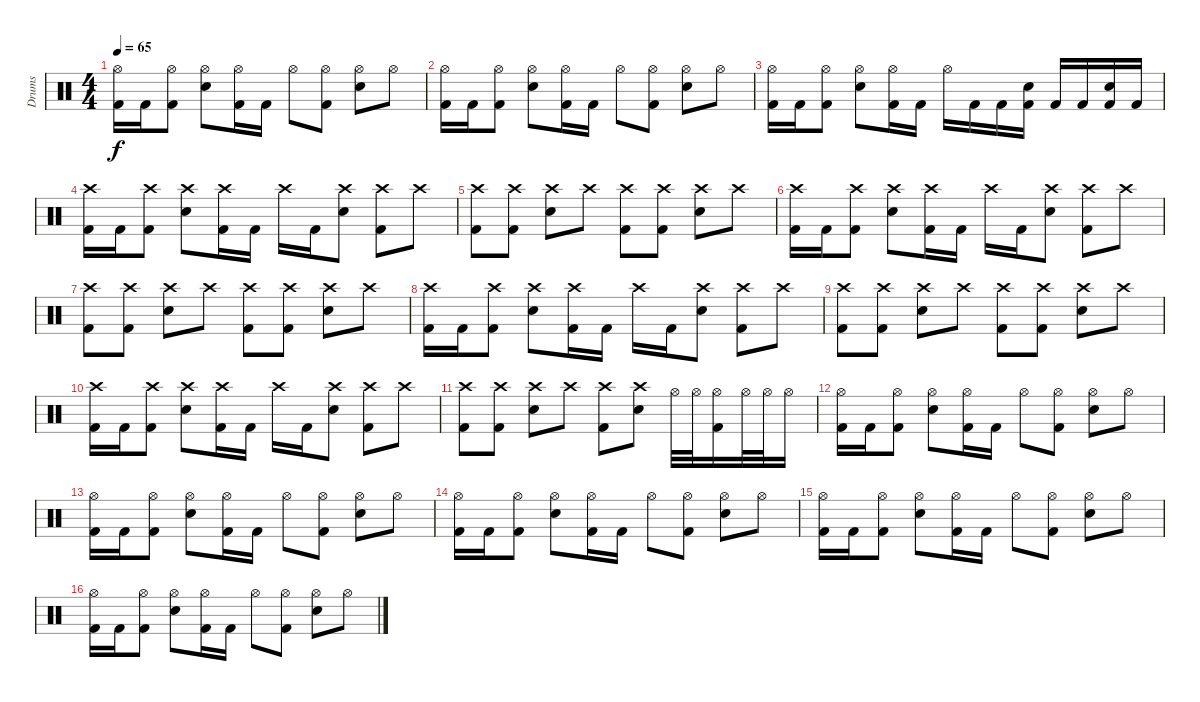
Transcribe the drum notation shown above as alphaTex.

\track ("Drums" "Drums") {instrument percussion}
\staff {score}
\articulation defaults
\ts (4 4)
\tempo 65
\clef neutral
\ks c
("Hi-Hat (open)" "Kick (hit) 2").16{dy f} "Kick (hit) 2".16 ("Hi-Hat (open)" "Kick (hit) 2").8 ("Hi-Hat (open)" "Electric Snare (hit)").8 ("Hi-Hat (open)" "Kick (hit) 2").16 "Kick (hit) 2".16 "Hi-Hat (open)".8 ("Hi-Hat (open)" "Kick (hit) 2").8 ("Hi-Hat (open)" "Electric Snare (hit)").8 "Hi-Hat (open)".8 |
("Hi-Hat (open)" "Kick (hit) 2").16 "Kick (hit) 2".16 ("Hi-Hat (open)" "Kick (hit) 2").8 ("Hi-Hat (open)" "Electric Snare (hit)").8 ("Hi-Hat (open)" "Kick (hit) 2").16 "Kick (hit) 2".16 "Hi-Hat (open)".8 ("Hi-Hat (open)" "Kick (hit) 2").8 ("Hi-Hat (open)" "Electric Snare (hit)").8 "Hi-Hat (open)".8 |
("Hi-Hat (open)" "Kick (hit) 2").16 "Kick (hit) 2".16 ("Hi-Hat (open)" "Kick (hit) 2").8 ("Hi-Hat (open)" "Electric Snare (hit)").8 ("Hi-Hat (open)" "Kick (hit) 2").16 "Kick (hit) 2".16 "Hi-Hat (open)".16 "Kick (hit) 2".16 "Kick (hit) 2".16 ("Electric Snare (hit)" "Kick (hit) 2").16 "Kick (hit) 2".16 "Kick (hit) 2".16 ("Electric Snare (hit)" "Kick (hit) 2").16 "Kick (hit) 2".16 |
("Crash high (hit)" "Kick (hit) 2").16 "Kick (hit) 2".16 ("Crash high (hit)" "Kick (hit) 2").8 ("Crash high (hit)" "Electric Snare (hit)").8 ("Crash high (hit)" "Kick (hit) 2").16 "Kick (hit) 2".16 "Crash high (hit)".16 "Kick (hit) 2".16 ("Crash high (hit)" "Electric Snare (hit)").8 ("Crash high (hit)" "Kick (hit) 2").8 "Crash high (hit)".8 |
("Crash high (hit)" "Kick (hit) 2").8 ("Crash high (hit)" "Kick (hit) 2").8 ("Crash high (hit)" "Electric Snare (hit)").8 "Crash high (hit)".8 ("Crash high (hit)" "Kick (hit) 2").8 ("Crash high (hit)" "Kick (hit) 2").8 ("Crash high (hit)" "Electric Snare (hit)").8 "Crash high (hit)".8 |
("Crash high (hit)" "Kick (hit) 2").16 "Kick (hit) 2".16 ("Crash high (hit)" "Kick (hit) 2").8 ("Crash high (hit)" "Electric Snare (hit)").8 ("Crash high (hit)" "Kick (hit) 2").16 "Kick (hit) 2".16 "Crash high (hit)".16 "Kick (hit) 2".16 ("Crash high (hit)" "Electric Snare (hit)").8 ("Crash high (hit)" "Kick (hit) 2").8 "Crash high (hit)".8 |
("Crash high (hit)" "Kick (hit) 2").8 ("Crash high (hit)" "Kick (hit) 2").8 ("Crash high (hit)" "Electric Snare (hit)").8 "Crash high (hit)".8 ("Crash high (hit)" "Kick (hit) 2").8 ("Crash high (hit)" "Kick (hit) 2").8 ("Crash high (hit)" "Electric Snare (hit)").8 "Crash high (hit)".8 |
("Crash high (hit)" "Kick (hit) 2").16 "Kick (hit) 2".16 ("Crash high (hit)" "Kick (hit) 2").8 ("Crash high (hit)" "Electric Snare (hit)").8 ("Crash high (hit)" "Kick (hit) 2").16 "Kick (hit) 2".16 "Crash high (hit)".16 "Kick (hit) 2".16 ("Crash high (hit)" "Electric Snare (hit)").8 ("Crash high (hit)" "Kick (hit) 2").8 "Crash high (hit)".8 |
("Crash high (hit)" "Kick (hit) 2").8 ("Crash high (hit)" "Kick (hit) 2").8 ("Crash high (hit)" "Electric Snare (hit)").8 "Crash high (hit)".8 ("Crash high (hit)" "Kick (hit) 2").8 ("Crash high (hit)" "Kick (hit) 2").8 ("Crash high (hit)" "Electric Snare (hit)").8 "Crash high (hit)".8 |
("Crash high (hit)" "Kick (hit) 2").16 "Kick (hit) 2".16 ("Crash high (hit)" "Kick (hit) 2").8 ("Crash high (hit)" "Electric Snare (hit)").8 ("Crash high (hit)" "Kick (hit) 2").16 "Kick (hit) 2".16 "Crash high (hit)".16 "Kick (hit) 2".16 ("Crash high (hit)" "Electric Snare (hit)").8 ("Crash high (hit)" "Kick (hit) 2").8 "Crash high (hit)".8 |
("Crash high (hit)" "Kick (hit) 2").8 ("Crash high (hit)" "Kick (hit) 2").8 ("Crash high (hit)" "Electric Snare (hit)").8 "Crash high (hit)".8 ("Crash high (hit)" "Kick (hit) 2").8 ("Crash high (hit)" "Electric Snare (hit)").8 "Hi-Hat (open)".32 "Hi-Hat (open)".32 ("Hi-Hat (open)" "Kick (hit) 2").16 "Hi-Hat (open)".32 "Hi-Hat (open)".32 "Hi-Hat (open)".16 |
("Hi-Hat (open)" "Kick (hit) 2").16 "Kick (hit) 2".16 ("Hi-Hat (open)" "Kick (hit) 2").8 ("Hi-Hat (open)" "Electric Snare (hit)").8 ("Hi-Hat (open)" "Kick (hit) 2").16 "Kick (hit) 2".16 "Hi-Hat (open)".8 ("Hi-Hat (open)" "Kick (hit) 2").8 ("Hi-Hat (open)" "Electric Snare (hit)").8 "Hi-Hat (open)".8 |
("Hi-Hat (open)" "Kick (hit) 2").16 "Kick (hit) 2".16 ("Hi-Hat (open)" "Kick (hit) 2").8 ("Hi-Hat (open)" "Electric Snare (hit)").8 ("Hi-Hat (open)" "Kick (hit) 2").16 "Kick (hit) 2".16 "Hi-Hat (open)".8 ("Hi-Hat (open)" "Kick (hit) 2").8 ("Hi-Hat (open)" "Electric Snare (hit)").8 "Hi-Hat (open)".8 |
("Hi-Hat (open)" "Kick (hit) 2").16 "Kick (hit) 2".16 ("Hi-Hat (open)" "Kick (hit) 2").8 ("Hi-Hat (open)" "Electric Snare (hit)").8 ("Hi-Hat (open)" "Kick (hit) 2").16 "Kick (hit) 2".16 "Hi-Hat (open)".8 ("Hi-Hat (open)" "Kick (hit) 2").8 ("Hi-Hat (open)" "Electric Snare (hit)").8 "Hi-Hat (open)".8 |
("Hi-Hat (open)" "Kick (hit) 2").16 "Kick (hit) 2".16 ("Hi-Hat (open)" "Kick (hit) 2").8 ("Hi-Hat (open)" "Electric Snare (hit)").8 ("Hi-Hat (open)" "Kick (hit) 2").16 "Kick (hit) 2".16 "Hi-Hat (open)".8 ("Hi-Hat (open)" "Kick (hit) 2").8 ("Hi-Hat (open)" "Electric Snare (hit)").8 "Hi-Hat (open)".8 |
("Hi-Hat (open)" "Kick (hit) 2").16 "Kick (hit) 2".16 ("Hi-Hat (open)" "Kick (hit) 2").8 ("Hi-Hat (open)" "Electric Snare (hit)").8 ("Hi-Hat (open)" "Kick (hit) 2").16 "Kick (hit) 2".16 "Hi-Hat (open)".8 ("Hi-Hat (open)" "Kick (hit) 2").8 ("Hi-Hat (open)" "Electric Snare (hit)").8 "Hi-Hat (open)".8
